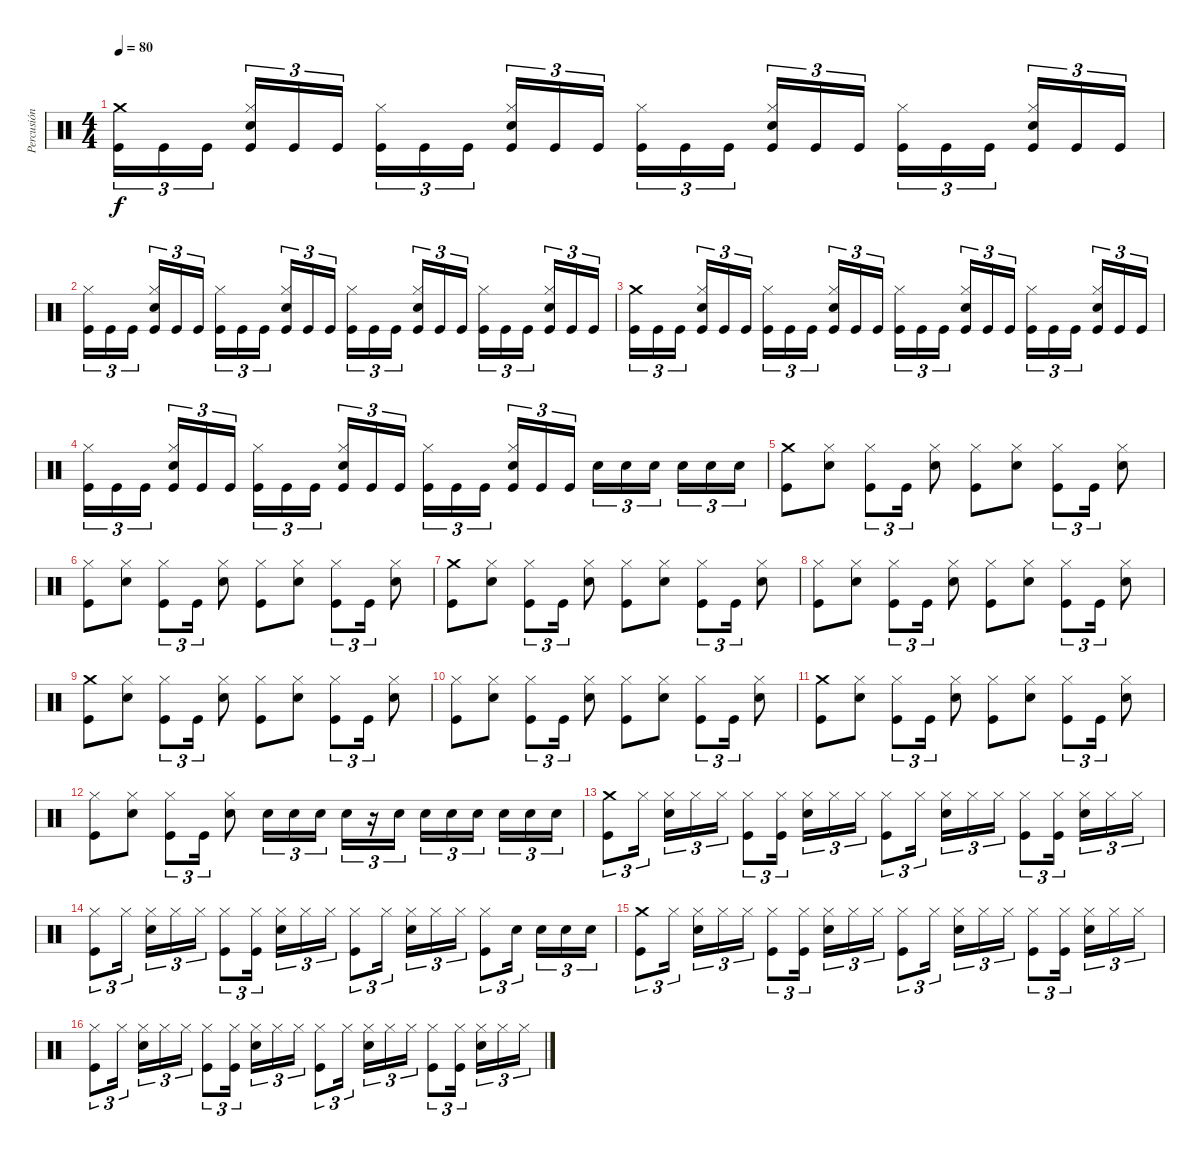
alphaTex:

\track ("Percusión con doble bombo" "Percusión ") {mute instrument percussion}
\staff {score}
\articulation defaults
\ts (4 4)
\tempo 80
\clef neutral
\ks c
("Crash medium (hit)" "Kick (hit)").16{tu (3 2) dy f} "Kick (hit)".16{tu (3 2)} "Kick (hit)".16{tu (3 2) beam splitsecondary} ("Hi-Hat (closed)" "Snare (hit) 2" "Kick (hit)").16{tu (3 2)} "Kick (hit)".16{tu (3 2)} "Kick (hit)".16{tu (3 2)} ("Hi-Hat (closed)" "Kick (hit)").16{tu (3 2)} "Kick (hit)".16{tu (3 2)} "Kick (hit)".16{tu (3 2) beam splitsecondary} ("Hi-Hat (closed)" "Snare (hit) 2" "Kick (hit)").16{tu (3 2)} "Kick (hit)".16{tu (3 2)} "Kick (hit)".16{tu (3 2)} ("Hi-Hat (closed)" "Kick (hit)").16{tu (3 2)} "Kick (hit)".16{tu (3 2)} "Kick (hit)".16{tu (3 2) beam splitsecondary} ("Hi-Hat (closed)" "Snare (hit) 2" "Kick (hit)").16{tu (3 2)} "Kick (hit)".16{tu (3 2)} "Kick (hit)".16{tu (3 2)} ("Hi-Hat (closed)" "Kick (hit)").16{tu (3 2)} "Kick (hit)".16{tu (3 2)} "Kick (hit)".16{tu (3 2) beam splitsecondary} ("Hi-Hat (closed)" "Snare (hit) 2" "Kick (hit)").16{tu (3 2)} "Kick (hit)".16{tu (3 2)} "Kick (hit)".16{tu (3 2)} |
("Hi-Hat (closed)" "Kick (hit)").16{tu (3 2)} "Kick (hit)".16{tu (3 2)} "Kick (hit)".16{tu (3 2) beam splitsecondary} ("Hi-Hat (closed)" "Snare (hit) 2" "Kick (hit)").16{tu (3 2)} "Kick (hit)".16{tu (3 2)} "Kick (hit)".16{tu (3 2)} ("Hi-Hat (closed)" "Kick (hit)").16{tu (3 2)} "Kick (hit)".16{tu (3 2)} "Kick (hit)".16{tu (3 2) beam splitsecondary} ("Hi-Hat (closed)" "Snare (hit) 2" "Kick (hit)").16{tu (3 2)} "Kick (hit)".16{tu (3 2)} "Kick (hit)".16{tu (3 2)} ("Hi-Hat (closed)" "Kick (hit)").16{tu (3 2)} "Kick (hit)".16{tu (3 2)} "Kick (hit)".16{tu (3 2) beam splitsecondary} ("Hi-Hat (closed)" "Snare (hit) 2" "Kick (hit)").16{tu (3 2)} "Kick (hit)".16{tu (3 2)} "Kick (hit)".16{tu (3 2)} ("Hi-Hat (closed)" "Kick (hit)").16{tu (3 2)} "Kick (hit)".16{tu (3 2)} "Kick (hit)".16{tu (3 2) beam splitsecondary} ("Hi-Hat (closed)" "Snare (hit) 2" "Kick (hit)").16{tu (3 2)} "Kick (hit)".16{tu (3 2)} "Kick (hit)".16{tu (3 2)} |
("Crash medium (hit)" "Kick (hit)").16{tu (3 2)} "Kick (hit)".16{tu (3 2)} "Kick (hit)".16{tu (3 2) beam splitsecondary} ("Hi-Hat (closed)" "Snare (hit) 2" "Kick (hit)").16{tu (3 2)} "Kick (hit)".16{tu (3 2)} "Kick (hit)".16{tu (3 2)} ("Hi-Hat (closed)" "Kick (hit)").16{tu (3 2)} "Kick (hit)".16{tu (3 2)} "Kick (hit)".16{tu (3 2) beam splitsecondary} ("Hi-Hat (closed)" "Snare (hit) 2" "Kick (hit)").16{tu (3 2)} "Kick (hit)".16{tu (3 2)} "Kick (hit)".16{tu (3 2)} ("Hi-Hat (closed)" "Kick (hit)").16{tu (3 2)} "Kick (hit)".16{tu (3 2)} "Kick (hit)".16{tu (3 2) beam splitsecondary} ("Hi-Hat (closed)" "Snare (hit) 2" "Kick (hit)").16{tu (3 2)} "Kick (hit)".16{tu (3 2)} "Kick (hit)".16{tu (3 2)} ("Hi-Hat (closed)" "Kick (hit)").16{tu (3 2)} "Kick (hit)".16{tu (3 2)} "Kick (hit)".16{tu (3 2) beam splitsecondary} ("Hi-Hat (closed)" "Snare (hit) 2" "Kick (hit)").16{tu (3 2)} "Kick (hit)".16{tu (3 2)} "Kick (hit)".16{tu (3 2)} |
("Hi-Hat (closed)" "Kick (hit)").16{tu (3 2)} "Kick (hit)".16{tu (3 2)} "Kick (hit)".16{tu (3 2) beam splitsecondary} ("Hi-Hat (closed)" "Snare (hit) 2" "Kick (hit)").16{tu (3 2)} "Kick (hit)".16{tu (3 2)} "Kick (hit)".16{tu (3 2)} ("Hi-Hat (closed)" "Kick (hit)").16{tu (3 2)} "Kick (hit)".16{tu (3 2)} "Kick (hit)".16{tu (3 2) beam splitsecondary} ("Hi-Hat (closed)" "Snare (hit) 2" "Kick (hit)").16{tu (3 2)} "Kick (hit)".16{tu (3 2)} "Kick (hit)".16{tu (3 2)} ("Hi-Hat (closed)" "Kick (hit)").16{tu (3 2)} "Kick (hit)".16{tu (3 2)} "Kick (hit)".16{tu (3 2) beam splitsecondary} ("Hi-Hat (closed)" "Snare (hit) 2" "Kick (hit)").16{tu (3 2)} "Kick (hit)".16{tu (3 2)} "Kick (hit)".16{tu (3 2)} "Snare (hit) 2".16{tu (3 2)} "Snare (hit) 2".16{tu (3 2)} "Snare (hit) 2".16{tu (3 2) beam splitsecondary} "Snare (hit) 2".16{tu (3 2)} "Snare (hit) 2".16{tu (3 2)} "Snare (hit) 2".16{tu (3 2)} |
("Crash medium (hit)" "Kick (hit)").8 ("Hi-Hat (closed)" "Snare (hit) 2").8 ("Hi-Hat (closed)" "Kick (hit)").8{tu (3 2)} "Kick (hit)".16{tu (3 2)} ("Hi-Hat (closed)" "Snare (hit) 2").8 ("Hi-Hat (closed)" "Kick (hit)").8 ("Hi-Hat (closed)" "Snare (hit) 2").8 ("Hi-Hat (closed)" "Kick (hit)").8{tu (3 2)} "Kick (hit)".16{tu (3 2)} ("Hi-Hat (closed)" "Snare (hit) 2").8 |
("Hi-Hat (closed)" "Kick (hit)").8 ("Hi-Hat (closed)" "Snare (hit) 2").8 ("Hi-Hat (closed)" "Kick (hit)").8{tu (3 2)} "Kick (hit)".16{tu (3 2)} ("Hi-Hat (closed)" "Snare (hit) 2").8 ("Hi-Hat (closed)" "Kick (hit)").8 ("Hi-Hat (closed)" "Snare (hit) 2").8 ("Hi-Hat (closed)" "Kick (hit)").8{tu (3 2)} "Kick (hit)".16{tu (3 2)} ("Hi-Hat (closed)" "Snare (hit) 2").8 |
("Crash medium (hit)" "Kick (hit)").8 ("Hi-Hat (closed)" "Snare (hit) 2").8 ("Hi-Hat (closed)" "Kick (hit)").8{tu (3 2)} "Kick (hit)".16{tu (3 2)} ("Hi-Hat (closed)" "Snare (hit) 2").8 ("Hi-Hat (closed)" "Kick (hit)").8 ("Hi-Hat (closed)" "Snare (hit) 2").8 ("Hi-Hat (closed)" "Kick (hit)").8{tu (3 2)} "Kick (hit)".16{tu (3 2)} ("Hi-Hat (closed)" "Snare (hit) 2").8 |
("Hi-Hat (closed)" "Kick (hit)").8 ("Hi-Hat (closed)" "Snare (hit) 2").8 ("Hi-Hat (closed)" "Kick (hit)").8{tu (3 2)} "Kick (hit)".16{tu (3 2)} ("Hi-Hat (closed)" "Snare (hit) 2").8 ("Hi-Hat (closed)" "Kick (hit)").8 ("Hi-Hat (closed)" "Snare (hit) 2").8 ("Hi-Hat (closed)" "Kick (hit)").8{tu (3 2)} "Kick (hit)".16{tu (3 2)} ("Hi-Hat (closed)" "Snare (hit) 2").8 |
("Crash medium (hit)" "Kick (hit)").8 ("Hi-Hat (closed)" "Snare (hit) 2").8 ("Hi-Hat (closed)" "Kick (hit)").8{tu (3 2)} "Kick (hit)".16{tu (3 2)} ("Hi-Hat (closed)" "Snare (hit) 2").8 ("Hi-Hat (closed)" "Kick (hit)").8 ("Hi-Hat (closed)" "Snare (hit) 2").8 ("Hi-Hat (closed)" "Kick (hit)").8{tu (3 2)} "Kick (hit)".16{tu (3 2)} ("Hi-Hat (closed)" "Snare (hit) 2").8 |
("Hi-Hat (closed)" "Kick (hit)").8 ("Hi-Hat (closed)" "Snare (hit) 2").8 ("Hi-Hat (closed)" "Kick (hit)").8{tu (3 2)} "Kick (hit)".16{tu (3 2)} ("Hi-Hat (closed)" "Snare (hit) 2").8 ("Hi-Hat (closed)" "Kick (hit)").8 ("Hi-Hat (closed)" "Snare (hit) 2").8 ("Hi-Hat (closed)" "Kick (hit)").8{tu (3 2)} "Kick (hit)".16{tu (3 2)} ("Hi-Hat (closed)" "Snare (hit) 2").8 |
("Crash medium (hit)" "Kick (hit)").8 ("Hi-Hat (closed)" "Snare (hit) 2").8 ("Hi-Hat (closed)" "Kick (hit)").8{tu (3 2)} "Kick (hit)".16{tu (3 2)} ("Hi-Hat (closed)" "Snare (hit) 2").8 ("Hi-Hat (closed)" "Kick (hit)").8 ("Hi-Hat (closed)" "Snare (hit) 2").8 ("Hi-Hat (closed)" "Kick (hit)").8{tu (3 2)} "Kick (hit)".16{tu (3 2)} ("Hi-Hat (closed)" "Snare (hit) 2").8 |
("Hi-Hat (closed)" "Kick (hit)").8 ("Hi-Hat (closed)" "Snare (hit) 2").8 ("Hi-Hat (closed)" "Kick (hit)").8{tu (3 2)} "Kick (hit)".16{tu (3 2)} ("Hi-Hat (closed)" "Snare (hit) 2").8 "Snare (hit) 2".16{tu (3 2)} "Snare (hit) 2".16{tu (3 2)} "Snare (hit) 2".16{tu (3 2) beam splitsecondary} "Snare (hit) 2".16{tu (3 2)} r.16{tu (3 2)} "Snare (hit) 2".16{tu (3 2)} "Snare (hit) 2".16{tu (3 2)} "Snare (hit) 2".16{tu (3 2)} "Snare (hit) 2".16{tu (3 2) beam splitsecondary} "Snare (hit) 2".16{tu (3 2)} "Snare (hit) 2".16{tu (3 2)} "Snare (hit) 2".16{tu (3 2)} |
("Crash medium (hit)" "Kick (hit)").8{tu (3 2)} "Hi-Hat (closed)".16{tu (3 2) beam splitsecondary} ("Hi-Hat (closed)" "Snare (hit) 2").16{tu (3 2)} "Hi-Hat (closed)".16{tu (3 2)} "Hi-Hat (closed)".16{tu (3 2)} ("Hi-Hat (closed)" "Kick (hit)").8{tu (3 2)} ("Hi-Hat (closed)" "Kick (hit)").16{tu (3 2) beam splitsecondary} ("Hi-Hat (closed)" "Snare (hit) 2").16{tu (3 2)} "Hi-Hat (closed)".16{tu (3 2)} "Hi-Hat (closed)".16{tu (3 2)} ("Hi-Hat (closed)" "Kick (hit)").8{tu (3 2)} "Hi-Hat (closed)".16{tu (3 2) beam splitsecondary} ("Hi-Hat (closed)" "Snare (hit) 2").16{tu (3 2)} "Hi-Hat (closed)".16{tu (3 2)} "Hi-Hat (closed)".16{tu (3 2)} ("Hi-Hat (closed)" "Kick (hit)").8{tu (3 2)} ("Hi-Hat (closed)" "Kick (hit)").16{tu (3 2) beam splitsecondary} ("Hi-Hat (closed)" "Snare (hit) 2").16{tu (3 2)} "Hi-Hat (closed)".16{tu (3 2)} "Hi-Hat (closed)".16{tu (3 2)} |
("Hi-Hat (closed)" "Kick (hit)").8{tu (3 2)} "Hi-Hat (closed)".16{tu (3 2) beam splitsecondary} ("Hi-Hat (closed)" "Snare (hit) 2").16{tu (3 2)} "Hi-Hat (closed)".16{tu (3 2)} "Hi-Hat (closed)".16{tu (3 2)} ("Hi-Hat (closed)" "Kick (hit)").8{tu (3 2)} ("Hi-Hat (closed)" "Kick (hit)").16{tu (3 2) beam splitsecondary} ("Hi-Hat (closed)" "Snare (hit) 2").16{tu (3 2)} "Hi-Hat (closed)".16{tu (3 2)} "Hi-Hat (closed)".16{tu (3 2)} ("Hi-Hat (closed)" "Kick (hit)").8{tu (3 2)} "Hi-Hat (closed)".16{tu (3 2) beam splitsecondary} ("Hi-Hat (closed)" "Snare (hit) 2").16{tu (3 2)} "Hi-Hat (closed)".16{tu (3 2)} "Hi-Hat (closed)".16{tu (3 2)} ("Hi-Hat (closed)" "Kick (hit)").8{tu (3 2)} "Snare (hit) 2".16{tu (3 2) beam splitsecondary} "Snare (hit) 2".16{tu (3 2)} "Snare (hit) 2".16{tu (3 2)} "Snare (hit) 2".16{tu (3 2)} |
("Crash medium (hit)" "Kick (hit)").8{tu (3 2)} "Hi-Hat (closed)".16{tu (3 2) beam splitsecondary} ("Hi-Hat (closed)" "Snare (hit) 2").16{tu (3 2)} "Hi-Hat (closed)".16{tu (3 2)} "Hi-Hat (closed)".16{tu (3 2)} ("Hi-Hat (closed)" "Kick (hit)").8{tu (3 2)} ("Hi-Hat (closed)" "Kick (hit)").16{tu (3 2) beam splitsecondary} ("Hi-Hat (closed)" "Snare (hit) 2").16{tu (3 2)} "Hi-Hat (closed)".16{tu (3 2)} "Hi-Hat (closed)".16{tu (3 2)} ("Hi-Hat (closed)" "Kick (hit)").8{tu (3 2)} "Hi-Hat (closed)".16{tu (3 2) beam splitsecondary} ("Hi-Hat (closed)" "Snare (hit) 2").16{tu (3 2)} "Hi-Hat (closed)".16{tu (3 2)} "Hi-Hat (closed)".16{tu (3 2)} ("Hi-Hat (closed)" "Kick (hit)").8{tu (3 2)} ("Hi-Hat (closed)" "Kick (hit)").16{tu (3 2) beam splitsecondary} ("Hi-Hat (closed)" "Snare (hit) 2").16{tu (3 2)} "Hi-Hat (closed)".16{tu (3 2)} "Hi-Hat (closed)".16{tu (3 2)} |
("Hi-Hat (closed)" "Kick (hit)").8{tu (3 2)} "Hi-Hat (closed)".16{tu (3 2) beam splitsecondary} ("Hi-Hat (closed)" "Snare (hit) 2").16{tu (3 2)} "Hi-Hat (closed)".16{tu (3 2)} "Hi-Hat (closed)".16{tu (3 2)} ("Hi-Hat (closed)" "Kick (hit)").8{tu (3 2)} ("Hi-Hat (closed)" "Kick (hit)").16{tu (3 2) beam splitsecondary} ("Hi-Hat (closed)" "Snare (hit) 2").16{tu (3 2)} "Hi-Hat (closed)".16{tu (3 2)} "Hi-Hat (closed)".16{tu (3 2)} ("Hi-Hat (closed)" "Kick (hit)").8{tu (3 2)} "Hi-Hat (closed)".16{tu (3 2) beam splitsecondary} ("Hi-Hat (closed)" "Snare (hit) 2").16{tu (3 2)} "Hi-Hat (closed)".16{tu (3 2)} "Hi-Hat (closed)".16{tu (3 2)} ("Hi-Hat (closed)" "Kick (hit)").8{tu (3 2)} ("Hi-Hat (closed)" "Kick (hit)").16{tu (3 2) beam splitsecondary} ("Hi-Hat (closed)" "Snare (hit) 2").16{tu (3 2)} "Hi-Hat (closed)".16{tu (3 2)} "Hi-Hat (closed)".16{tu (3 2)}
